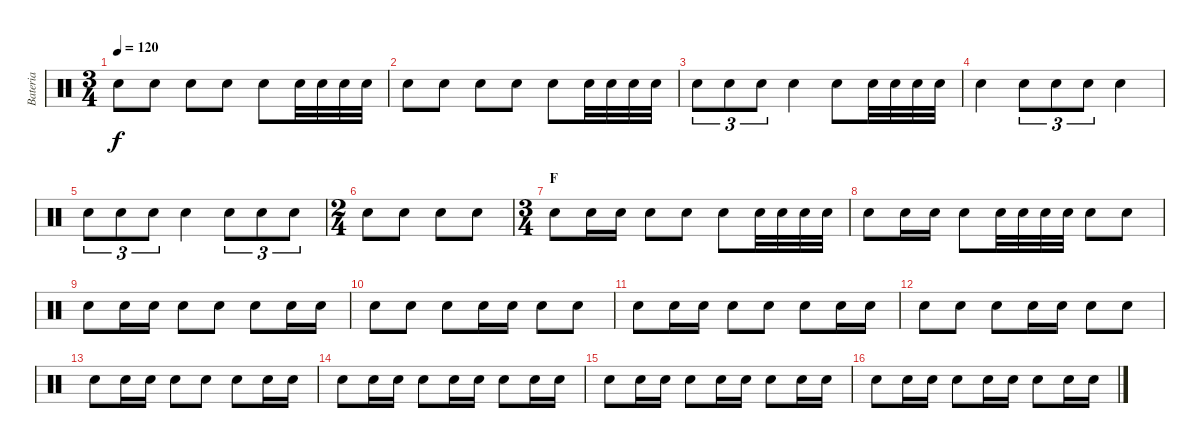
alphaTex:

\track ("Bateria" "Bateria") {instrument percussion}
\staff {score}
\articulation defaults
\ts (3 4)
\tempo 120
\clef neutral
\ks c "Electric Snare (hit)".8{dy f} "Electric Snare (hit)".8 "Electric Snare (hit)".8 "Electric Snare (hit)".8 "Electric Snare (hit)".8 "Electric Snare (hit)".32 "Electric Snare (hit)".32 "Electric Snare (hit)".32 "Electric Snare (hit)".32
|
"Electric Snare (hit)".8 "Electric Snare (hit)".8 "Electric Snare (hit)".8 "Electric Snare (hit)".8 "Electric Snare (hit)".8 "Electric Snare (hit)".32 "Electric Snare (hit)".32 "Electric Snare (hit)".32 "Electric Snare (hit)".32 |
"Electric Snare (hit)".8{tu (3 2)} "Electric Snare (hit)".8{tu (3 2)} "Electric Snare (hit)".8{tu (3 2)} "Electric Snare (hit)".4 "Electric Snare (hit)".8 "Electric Snare (hit)".32 "Electric Snare (hit)".32 "Electric Snare (hit)".32 "Electric Snare (hit)".32 |
"Electric Snare (hit)".4 "Electric Snare (hit)".8{tu (3 2)} "Electric Snare (hit)".8{tu (3 2)} "Electric Snare (hit)".8{tu (3 2)} "Electric Snare (hit)".4 |
"Electric Snare (hit)".8{tu (3 2)} "Electric Snare (hit)".8{tu (3 2)} "Electric Snare (hit)".8{tu (3 2)} "Electric Snare (hit)".4 "Electric Snare (hit)".8{tu (3 2)} "Electric Snare (hit)".8{tu (3 2)} "Electric Snare (hit)".8{tu (3 2)} |
\ts (2 4)
"Electric Snare (hit)".8 "Electric Snare (hit)".8 "Electric Snare (hit)".8 "Electric Snare (hit)".8 |
\ts (3 4)
\section ("" "F")
"Electric Snare (hit)".8 "Electric Snare (hit)".16 "Electric Snare (hit)".16 "Electric Snare (hit)".8 "Electric Snare (hit)".8 "Electric Snare (hit)".8 "Electric Snare (hit)".32 "Electric Snare (hit)".32 "Electric Snare (hit)".32 "Electric Snare (hit)".32 |
"Electric Snare (hit)".8 "Electric Snare (hit)".16 "Electric Snare (hit)".16 "Electric Snare (hit)".8 "Electric Snare (hit)".32 "Electric Snare (hit)".32 "Electric Snare (hit)".32 "Electric Snare (hit)".32 "Electric Snare (hit)".8 "Electric Snare (hit)".8 |
"Electric Snare (hit)".8 "Electric Snare (hit)".16 "Electric Snare (hit)".16 "Electric Snare (hit)".8 "Electric Snare (hit)".8 "Electric Snare (hit)".8 "Electric Snare (hit)".16 "Electric Snare (hit)".16 |
"Electric Snare (hit)".8 "Electric Snare (hit)".8 "Electric Snare (hit)".8 "Electric Snare (hit)".16 "Electric Snare (hit)".16 "Electric Snare (hit)".8 "Electric Snare (hit)".8 |
"Electric Snare (hit)".8 "Electric Snare (hit)".16 "Electric Snare (hit)".16 "Electric Snare (hit)".8 "Electric Snare (hit)".8 "Electric Snare (hit)".8 "Electric Snare (hit)".16 "Electric Snare (hit)".16 |
"Electric Snare (hit)".8 "Electric Snare (hit)".8 "Electric Snare (hit)".8 "Electric Snare (hit)".16 "Electric Snare (hit)".16 "Electric Snare (hit)".8 "Electric Snare (hit)".8 |
"Electric Snare (hit)".8 "Electric Snare (hit)".16 "Electric Snare (hit)".16 "Electric Snare (hit)".8 "Electric Snare (hit)".8 "Electric Snare (hit)".8 "Electric Snare (hit)".16 "Electric Snare (hit)".16 |
"Electric Snare (hit)".8 "Electric Snare (hit)".16 "Electric Snare (hit)".16 "Electric Snare (hit)".8 "Electric Snare (hit)".16 "Electric Snare (hit)".16 "Electric Snare (hit)".8 "Electric Snare (hit)".16 "Electric Snare (hit)".16 |
"Electric Snare (hit)".8 "Electric Snare (hit)".16 "Electric Snare (hit)".16 "Electric Snare (hit)".8 "Electric Snare (hit)".16 "Electric Snare (hit)".16 "Electric Snare (hit)".8 "Electric Snare (hit)".16 "Electric Snare (hit)".16 |
"Electric Snare (hit)".8 "Electric Snare (hit)".16 "Electric Snare (hit)".16 "Electric Snare (hit)".8 "Electric Snare (hit)".16 "Electric Snare (hit)".16 "Electric Snare (hit)".8 "Electric Snare (hit)".16 "Electric Snare (hit)".16
